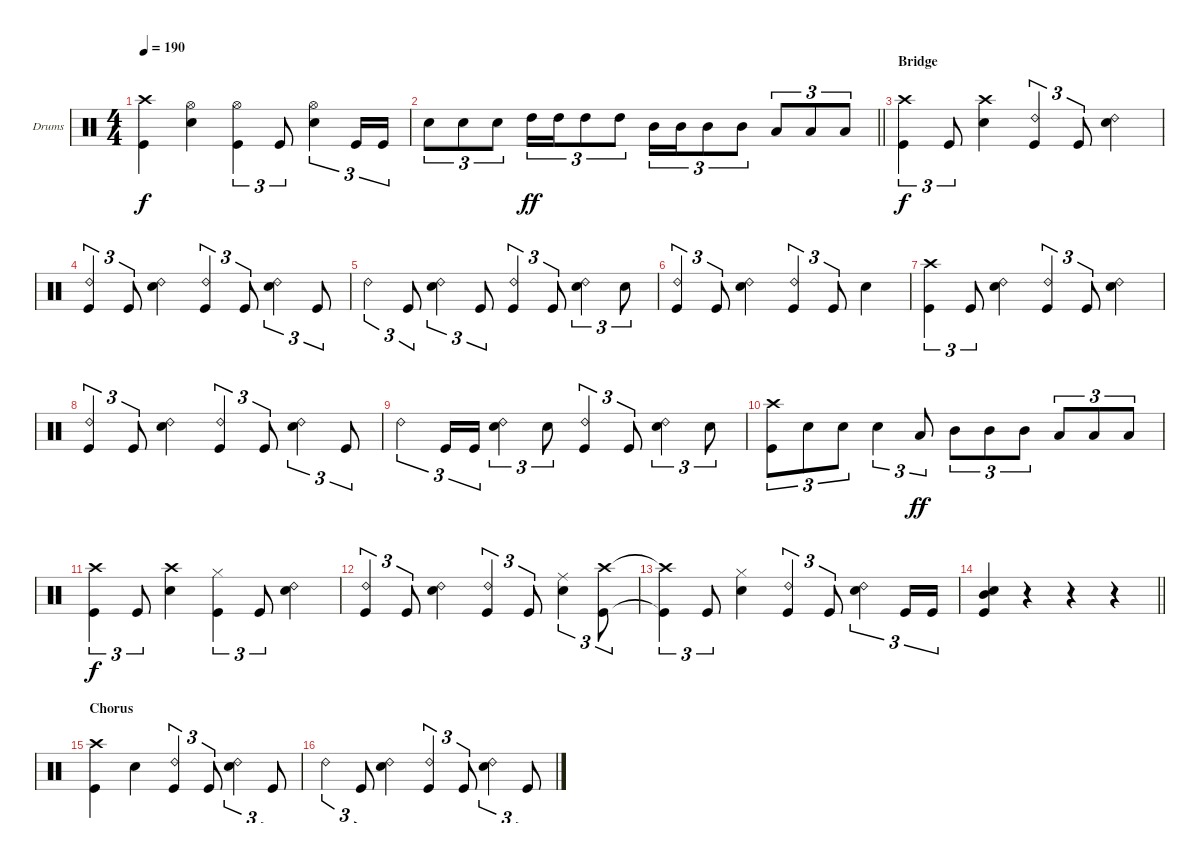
\bracketExtendMode groupsimilarinstruments
\firstSystemTrackNameOrientation horizontal
\otherSystemsTrackNameOrientation horizontal
\track ("Drums" "Drums") {instrument percussion}
\staff {score}
\articulation defaults
\ts (4 4)
\tempo 190
\clef neutral
\ks c
("Crash high (hit)" "Kick (hit)").4{dy f} ("Snare (hit) 2" "Hi-Hat (open)").4 ("Hi-Hat (open)" "Kick (hit)").4{tu (3 2)} "Kick (hit)".8{tu (3 2)} ("Snare (hit) 2" "Hi-Hat (open)").4{tu (3 2)} "Kick (hit)".16{tu (3 2)} "Kick (hit)".16{tu (3 2)} |
\barLineRight lightlight "Snare (hit) 2".8{tu (3 2)} "Snare (hit) 2".8{tu (3 2)} "Snare (hit) 2".8{tu (3 2)} "High Tom (hit)".16{tu (3 2) dy ff} "High Tom (hit)".16{tu (3 2)} "High Tom (hit)".8{tu (3 2)} "High Tom (hit)".8{tu (3 2)} "Mid Tom (hit)".16{tu (3 2)} "Mid Tom (hit)".16{tu (3 2)} "Mid Tom (hit)".8{tu (3 2)} "Mid Tom (hit)".8{tu (3 2)} "Low Tom (hit)".8{tu (3 2)} "Low Tom (hit)".8{tu (3 2)} "Low Tom (hit)".8{tu (3 2)}
|
\section ("" "Bridge")
("Crash high (hit)" "Kick (hit)").4{tu (3 2) dy f} "Kick (hit)".8{tu (3 2)} ("Snare (hit) 2" "Crash high (hit)").4 ("Kick (hit)" "Ride (bell) 2").4{tu (3 2)} "Kick (hit)".8{tu (3 2)} ("Snare (hit) 2" "Ride (bell) 2").4 |
("Kick (hit)" "Ride (bell) 2").4{tu (3 2)} "Kick (hit)".8{tu (3 2)} ("Snare (hit) 2" "Ride (bell) 2").4 ("Kick (hit)" "Ride (bell) 2").4{tu (3 2)} "Kick (hit)".8{tu (3 2)} ("Snare (hit) 2" "Ride (bell) 2").4{tu (3 2)} "Kick (hit)".8{tu (3 2)} |
"Ride (bell) 2".4{tu (3 2)} "Kick (hit)".8{tu (3 2)} ("Snare (hit) 2" "Ride (bell) 2").4{tu (3 2)} "Kick (hit)".8{tu (3 2)} ("Kick (hit)" "Ride (bell) 2").4{tu (3 2)} "Kick (hit)".8{tu (3 2)} ("Snare (hit) 2" "Ride (bell) 2").4{tu (3 2)} "Snare (hit) 2".8{tu (3 2)} |
("Kick (hit)" "Ride (bell) 2").4{tu (3 2)} "Kick (hit)".8{tu (3 2)} ("Snare (hit) 2" "Ride (bell) 2").4 ("Kick (hit)" "Ride (bell) 2").4{tu (3 2)} "Kick (hit)".8{tu (3 2)} "Snare (hit) 2".4 |
("Crash high (hit)" "Kick (hit)").4{tu (3 2)} "Kick (hit)".8{tu (3 2)} ("Snare (hit) 2" "Ride (bell) 2").4 ("Kick (hit)" "Ride (bell) 2").4{tu (3 2)} "Kick (hit)".8{tu (3 2)} ("Snare (hit) 2" "Ride (bell) 2").4 |
("Kick (hit)" "Ride (bell) 2").4{tu (3 2)} "Kick (hit)".8{tu (3 2)} ("Snare (hit) 2" "Ride (bell) 2").4 ("Kick (hit)" "Ride (bell) 2").4{tu (3 2)} "Kick (hit)".8{tu (3 2)} ("Snare (hit) 2" "Ride (bell) 2").4{tu (3 2)} "Kick (hit)".8{tu (3 2)} |
"Ride (bell) 2".4{tu (3 2)} "Kick (hit)".16{tu (3 2)} "Kick (hit)".16{tu (3 2)} ("Snare (hit) 2" "Ride (bell) 2").4{tu (3 2)} "Snare (hit) 2".8{tu (3 2)} ("Kick (hit)" "Ride (bell) 2").4{tu (3 2)} "Kick (hit)".8{tu (3 2)} ("Snare (hit) 2" "Ride (bell) 2").4{tu (3 2)} "Snare (hit) 2".8{tu (3 2)} |
("Kick (hit)" "Crash high (hit)").8{tu (3 2)} "Snare (hit) 2".8{tu (3 2)} "Snare (hit) 2".8{tu (3 2)} "Snare (hit) 2".4{tu (3 2)} "Low Tom (hit)".8{tu (3 2) dy ff} "Mid Tom (hit)".8{tu (3 2)} "Mid Tom (hit)".8{tu (3 2)} "Mid Tom (hit)".8{tu (3 2)} "Low Tom (hit)".8{tu (3 2)} "Low Tom (hit)".8{tu (3 2)} "Low Tom (hit)".8{tu (3 2)} |
("Crash high (hit)" "Kick (hit)").4{tu (3 2) dy f} "Kick (hit)".8{tu (3 2)} ("Snare (hit) 2" "Crash high (hit)").4 ("Kick (hit)" "Hi-Hat (closed)").4{tu (3 2)} "Kick (hit)".8{tu (3 2)} ("Snare (hit) 2" "Ride (bell) 2").4 |
("Kick (hit)" "Ride (bell) 2").4{tu (3 2)} "Kick (hit)".8{tu (3 2)} ("Snare (hit) 2" "Ride (bell) 2").4 ("Kick (hit)" "Ride (bell) 2").4{tu (3 2)} "Kick (hit)".8{tu (3 2)} ("Snare (hit) 2" "Ride (middle)").4{tu (3 2)} ("Kick (hit)" "Crash high (hit)").8{tu (3 2)} |
("Kick (hit)"{t} "Crash high (hit)"{t}).4{tu (3 2)} "Kick (hit)".8{tu (3 2)} ("Snare (hit) 2" "Hi-Hat (closed)").4 ("Kick (hit)" "Ride (bell) 2").4{tu (3 2)} "Kick (hit)".8{tu (3 2)} ("Snare (hit) 2" "Ride (bell) 2").4{tu (3 2)} "Kick (hit)".16{tu (3 2)} "Kick (hit)".16{tu (3 2)} |
\barLineRight lightlight
("Kick (hit)" "Snare (hit) 2" "Mid Tom (hit)").4 r.4 r.4 r.4 |
\section ("" "Chorus")
("Kick (hit)" "Crash high (hit)").4 "Snare (hit) 2".4 ("Kick (hit)" "Ride (bell) 2").4{tu (3 2)} "Kick (hit)".8{tu (3 2)} ("Snare (hit) 2" "Ride (bell) 2").4{tu (3 2)} "Kick (hit)".8{tu (3 2)} |
"Ride (bell) 2".4{tu (3 2)} "Kick (hit)".8{tu (3 2)} ("Snare (hit) 2" "Ride (bell) 2").4 ("Kick (hit)" "Ride (bell) 2").4{tu (3 2)} "Kick (hit)".8{tu (3 2)} ("Snare (hit) 2" "Ride (bell) 2").4{tu (3 2)} "Kick (hit)".8{tu (3 2)}
